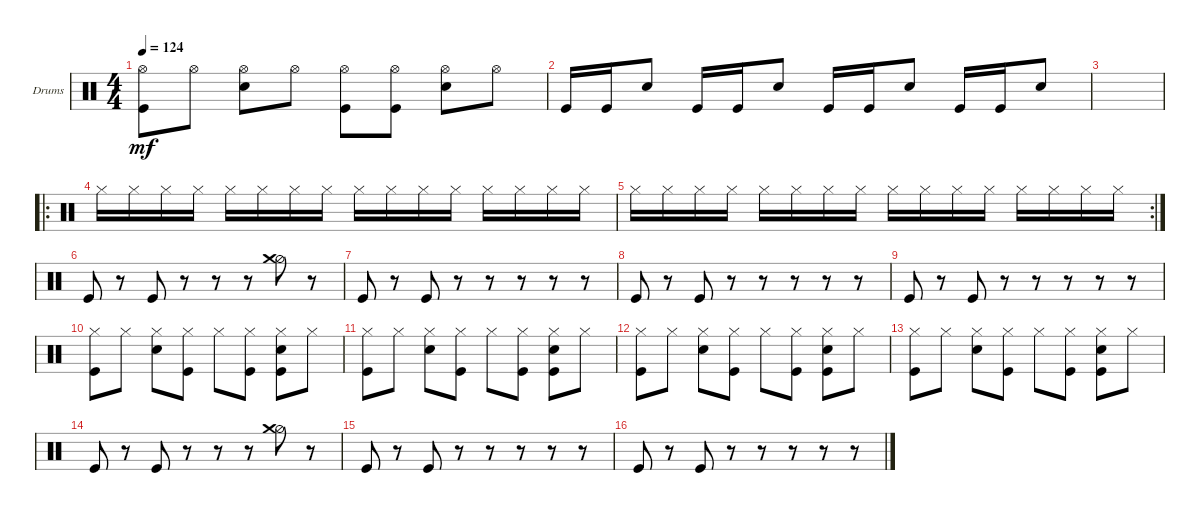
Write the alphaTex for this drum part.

\defaultSystemsLayout 4
\bracketExtendMode groupsimilarinstruments
\firstSystemTrackNameOrientation horizontal
\otherSystemsTrackNameOrientation horizontal
\track ("Drumkit" "Drums") {solo instrument percussion}
\staff {score}
\articulation defaults
\ts (4 4)
\tempo 124
\clef neutral
\ks c
("Kick (hit)" "Hi-Hat (open)").8{dy mf} "Hi-Hat (open)".8 ("Hi-Hat (open)" "Snare (hit) 2").8 "Hi-Hat (open)".8 ("Hi-Hat (open)" "Kick (hit)").8 ("Hi-Hat (open)" "Kick (hit)").8 ("Hi-Hat (open)" "Snare (hit) 2").8 "Hi-Hat (open)".8 |
"Kick (hit)".16 "Kick (hit)".16 "Snare (hit) 2".8 "Kick (hit)".16 "Kick (hit)".16 "Snare (hit) 2".8 "Kick (hit)".16 "Kick (hit)".16 "Snare (hit) 2".8 "Kick (hit)".16 "Kick (hit)".16 "Snare (hit) 2".8 |
|
\ro "Hi-Hat (closed)".16 "Hi-Hat (closed)".16 "Hi-Hat (closed)".16 "Hi-Hat (closed)".16 "Hi-Hat (closed)".16 "Hi-Hat (closed)".16 "Hi-Hat (closed)".16 "Hi-Hat (closed)".16 "Hi-Hat (closed)".16 "Hi-Hat (closed)".16 "Hi-Hat (closed)".16 "Hi-Hat (closed)".16 "Hi-Hat (closed)".16 "Hi-Hat (closed)".16 "Hi-Hat (closed)".16 "Hi-Hat (closed)".16
|
\rc 2 "Hi-Hat (closed)".16 "Hi-Hat (closed)".16 "Hi-Hat (closed)".16 "Hi-Hat (closed)".16 "Hi-Hat (closed)".16 "Hi-Hat (closed)".16 "Hi-Hat (closed)".16 "Hi-Hat (closed)".16 "Hi-Hat (closed)".16 "Hi-Hat (closed)".16 "Hi-Hat (closed)".16 "Hi-Hat (closed)".16 "Hi-Hat (closed)".16 "Hi-Hat (closed)".16 "Hi-Hat (closed)".16 "Hi-Hat (closed)".16
|
"Kick (hit)".8 r.8 "Kick (hit)".8 r.8 r.8 r.8 ("Hi-Hat (half)" "Crash medium (hit)").8 r.8 |
"Kick (hit)".8 r.8 "Kick (hit)".8 r.8 r.8 r.8 r.8 r.8 |
"Kick (hit)".8 r.8 "Kick (hit)".8 r.8 r.8 r.8 r.8 r.8 |
"Kick (hit)".8 r.8 "Kick (hit)".8 r.8 r.8 r.8 r.8 r.8 |
("Kick (hit)" "Hi-Hat (closed)").8 "Hi-Hat (closed)".8 ("Hi-Hat (closed)" "Snare (hit) 2").8 ("Kick (hit)" "Hi-Hat (closed)").8 "Hi-Hat (closed)".8 ("Kick (hit)" "Hi-Hat (closed)").8 ("Kick (hit)" "Hi-Hat (closed)" "Snare (hit) 2").8 "Hi-Hat (closed)".8 |
("Kick (hit)" "Hi-Hat (closed)").8 "Hi-Hat (closed)".8 ("Hi-Hat (closed)" "Snare (hit) 2").8 ("Kick (hit)" "Hi-Hat (closed)").8 "Hi-Hat (closed)".8 ("Kick (hit)" "Hi-Hat (closed)").8 ("Kick (hit)" "Hi-Hat (closed)" "Snare (hit) 2").8 "Hi-Hat (closed)".8 |
("Kick (hit)" "Hi-Hat (closed)").8 "Hi-Hat (closed)".8 ("Hi-Hat (closed)" "Snare (hit) 2").8 ("Kick (hit)" "Hi-Hat (closed)").8 "Hi-Hat (closed)".8 ("Kick (hit)" "Hi-Hat (closed)").8 ("Kick (hit)" "Hi-Hat (closed)" "Snare (hit) 2").8 "Hi-Hat (closed)".8 |
("Kick (hit)" "Hi-Hat (closed)").8 "Hi-Hat (closed)".8 ("Hi-Hat (closed)" "Snare (hit) 2").8 ("Kick (hit)" "Hi-Hat (closed)").8 "Hi-Hat (closed)".8 ("Kick (hit)" "Hi-Hat (closed)").8 ("Kick (hit)" "Hi-Hat (closed)" "Snare (hit) 2").8 "Hi-Hat (closed)".8 |
"Kick (hit)".8 r.8 "Kick (hit)".8 r.8 r.8 r.8 ("Hi-Hat (half)" "Crash medium (hit)").8 r.8 |
"Kick (hit)".8 r.8 "Kick (hit)".8 r.8 r.8 r.8 r.8 r.8 |
"Kick (hit)".8 r.8 "Kick (hit)".8 r.8 r.8 r.8 r.8 r.8
